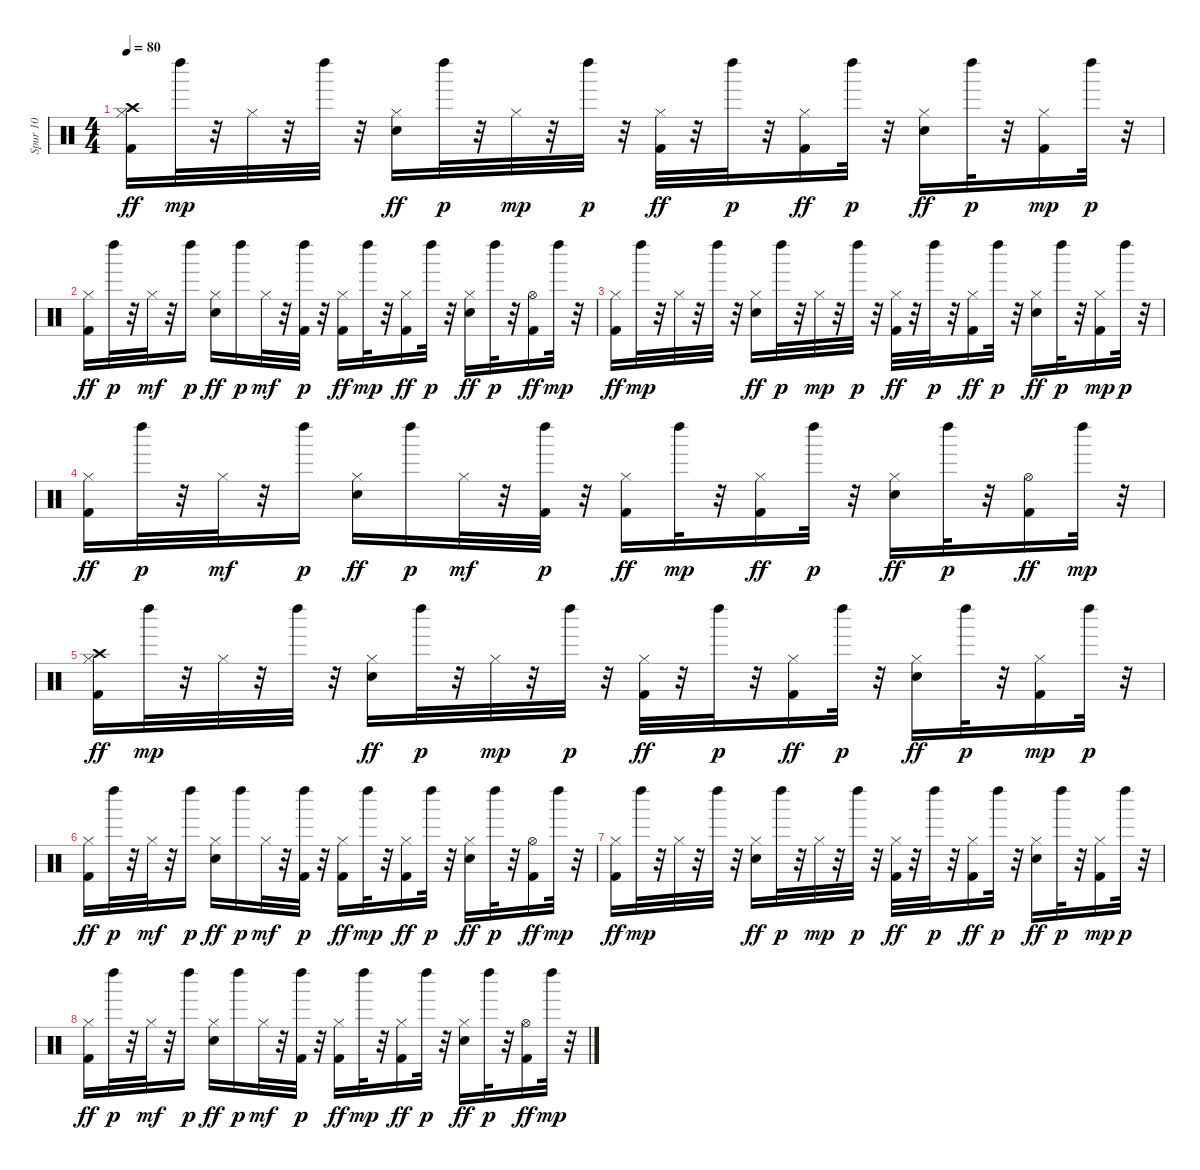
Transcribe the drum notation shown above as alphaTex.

\track ("Spur 10" "Spur 10") {instrument percussion}
\staff {score}
\articulation defaults
\ts (4 4)
\tempo 80
\clef neutral
\ks c
("Hi-Hat (closed)" "Kick (hit) 2" "Crash high (hit)").16{dy ff} "Left Maraca (hit)".32{dy mp} r.32 "Hi-Hat (closed)".32 r.32 "Left Maraca (hit)".32 r.32 ("Electric Snare (hit)" "Hi-Hat (closed)").16{dy ff} "Left Maraca (hit)".32{dy p} r.32 "Hi-Hat (closed)".32{dy mp} r.32 "Left Maraca (hit)".32{dy p} r.32 ("Hi-Hat (closed)" "Kick (hit) 2").32{dy ff} r.32 "Left Maraca (hit)".32{dy p} r.32 ("Hi-Hat (closed)" "Kick (hit) 2").16{dy ff} "Left Maraca (hit)".32{dy p} r.32 ("Electric Snare (hit)" "Hi-Hat (closed)").16{dy ff} "Left Maraca (hit)".32{dy p} r.32 ("Kick (hit) 2" "Hi-Hat (closed)").16{dy mp} "Left Maraca (hit)".32{dy p} r.32 |
("Hi-Hat (closed)" "Kick (hit) 2").16{dy ff} "Left Maraca (hit)".32{dy p} r.32 "Hi-Hat (closed)".32{dy mf} r.32 "Left Maraca (hit)".16{dy p} ("Electric Snare (hit)" "Hi-Hat (closed)").16{dy ff} "Left Maraca (hit)".16{dy p} "Hi-Hat (closed)".32{dy mf} r.32 ("Kick (hit) 2" "Left Maraca (hit)").32{dy p} r.32 ("Hi-Hat (closed)" "Kick (hit) 2").16{dy ff} "Left Maraca (hit)".32{dy mp} r.32 ("Hi-Hat (closed)" "Kick (hit) 2").16{dy ff} "Left Maraca (hit)".32{dy p} r.32 ("Electric Snare (hit)" "Hi-Hat (closed)").16{dy ff} "Left Maraca (hit)".32{dy p} r.32 ("Kick (hit) 2" "Hi-Hat (open)").16{dy ff} "Left Maraca (hit)".32{dy mp} r.32 |
("Hi-Hat (closed)" "Kick (hit) 2").16{dy ff} "Left Maraca (hit)".32{dy mp} r.32 "Hi-Hat (closed)".32 r.32 "Left Maraca (hit)".32 r.32 ("Electric Snare (hit)" "Hi-Hat (closed)").16{dy ff} "Left Maraca (hit)".32{dy p} r.32 "Hi-Hat (closed)".32{dy mp} r.32 "Left Maraca (hit)".32{dy p} r.32 ("Hi-Hat (closed)" "Kick (hit) 2").32{dy ff} r.32 "Left Maraca (hit)".32{dy p} r.32 ("Hi-Hat (closed)" "Kick (hit) 2").16{dy ff} "Left Maraca (hit)".32{dy p} r.32 ("Electric Snare (hit)" "Hi-Hat (closed)").16{dy ff} "Left Maraca (hit)".32{dy p} r.32 ("Kick (hit) 2" "Hi-Hat (closed)").16{dy mp} "Left Maraca (hit)".32{dy p} r.32 |
("Hi-Hat (closed)" "Kick (hit) 2").16{dy ff} "Left Maraca (hit)".32{dy p} r.32 "Hi-Hat (closed)".32{dy mf} r.32 "Left Maraca (hit)".16{dy p} ("Electric Snare (hit)" "Hi-Hat (closed)").16{dy ff} "Left Maraca (hit)".16{dy p} "Hi-Hat (closed)".32{dy mf} r.32 ("Kick (hit) 2" "Left Maraca (hit)").32{dy p} r.32 ("Hi-Hat (closed)" "Kick (hit) 2").16{dy ff} "Left Maraca (hit)".32{dy mp} r.32 ("Hi-Hat (closed)" "Kick (hit) 2").16{dy ff} "Left Maraca (hit)".32{dy p} r.32 ("Electric Snare (hit)" "Hi-Hat (closed)").16{dy ff} "Left Maraca (hit)".32{dy p} r.32 ("Kick (hit) 2" "Hi-Hat (open)").16{dy ff} "Left Maraca (hit)".32{dy mp} r.32 |
("Hi-Hat (closed)" "Kick (hit) 2" "Crash high (hit)").16{dy ff} "Left Maraca (hit)".32{dy mp} r.32 "Hi-Hat (closed)".32 r.32 "Left Maraca (hit)".32 r.32 ("Electric Snare (hit)" "Hi-Hat (closed)").16{dy ff} "Left Maraca (hit)".32{dy p} r.32 "Hi-Hat (closed)".32{dy mp} r.32 "Left Maraca (hit)".32{dy p} r.32 ("Hi-Hat (closed)" "Kick (hit) 2").32{dy ff} r.32 "Left Maraca (hit)".32{dy p} r.32 ("Hi-Hat (closed)" "Kick (hit) 2").16{dy ff} "Left Maraca (hit)".32{dy p} r.32 ("Electric Snare (hit)" "Hi-Hat (closed)").16{dy ff} "Left Maraca (hit)".32{dy p} r.32 ("Kick (hit) 2" "Hi-Hat (closed)").16{dy mp} "Left Maraca (hit)".32{dy p} r.32 |
("Hi-Hat (closed)" "Kick (hit) 2").16{dy ff} "Left Maraca (hit)".32{dy p} r.32 "Hi-Hat (closed)".32{dy mf} r.32 "Left Maraca (hit)".16{dy p} ("Electric Snare (hit)" "Hi-Hat (closed)").16{dy ff} "Left Maraca (hit)".16{dy p} "Hi-Hat (closed)".32{dy mf} r.32 ("Kick (hit) 2" "Left Maraca (hit)").32{dy p} r.32 ("Hi-Hat (closed)" "Kick (hit) 2").16{dy ff} "Left Maraca (hit)".32{dy mp} r.32 ("Hi-Hat (closed)" "Kick (hit) 2").16{dy ff} "Left Maraca (hit)".32{dy p} r.32 ("Electric Snare (hit)" "Hi-Hat (closed)").16{dy ff} "Left Maraca (hit)".32{dy p} r.32 ("Kick (hit) 2" "Hi-Hat (open)").16{dy ff} "Left Maraca (hit)".32{dy mp} r.32 |
("Hi-Hat (closed)" "Kick (hit) 2").16{dy ff} "Left Maraca (hit)".32{dy mp} r.32 "Hi-Hat (closed)".32 r.32 "Left Maraca (hit)".32 r.32 ("Electric Snare (hit)" "Hi-Hat (closed)").16{dy ff} "Left Maraca (hit)".32{dy p} r.32 "Hi-Hat (closed)".32{dy mp} r.32 "Left Maraca (hit)".32{dy p} r.32 ("Hi-Hat (closed)" "Kick (hit) 2").32{dy ff} r.32 "Left Maraca (hit)".32{dy p} r.32 ("Hi-Hat (closed)" "Kick (hit) 2").16{dy ff} "Left Maraca (hit)".32{dy p} r.32 ("Electric Snare (hit)" "Hi-Hat (closed)").16{dy ff} "Left Maraca (hit)".32{dy p} r.32 ("Kick (hit) 2" "Hi-Hat (closed)").16{dy mp} "Left Maraca (hit)".32{dy p} r.32 |
("Hi-Hat (closed)" "Kick (hit) 2").16{dy ff} "Left Maraca (hit)".32{dy p} r.32 "Hi-Hat (closed)".32{dy mf} r.32 "Left Maraca (hit)".16{dy p} ("Electric Snare (hit)" "Hi-Hat (closed)").16{dy ff} "Left Maraca (hit)".16{dy p} "Hi-Hat (closed)".32{dy mf} r.32 ("Kick (hit) 2" "Left Maraca (hit)").32{dy p} r.32 ("Hi-Hat (closed)" "Kick (hit) 2").16{dy ff} "Left Maraca (hit)".32{dy mp} r.32 ("Hi-Hat (closed)" "Kick (hit) 2").16{dy ff} "Left Maraca (hit)".32{dy p} r.32 ("Electric Snare (hit)" "Hi-Hat (closed)").16{dy ff} "Left Maraca (hit)".32{dy p} r.32 ("Kick (hit) 2" "Hi-Hat (open)").16{dy ff} "Left Maraca (hit)".32{dy mp} r.32
